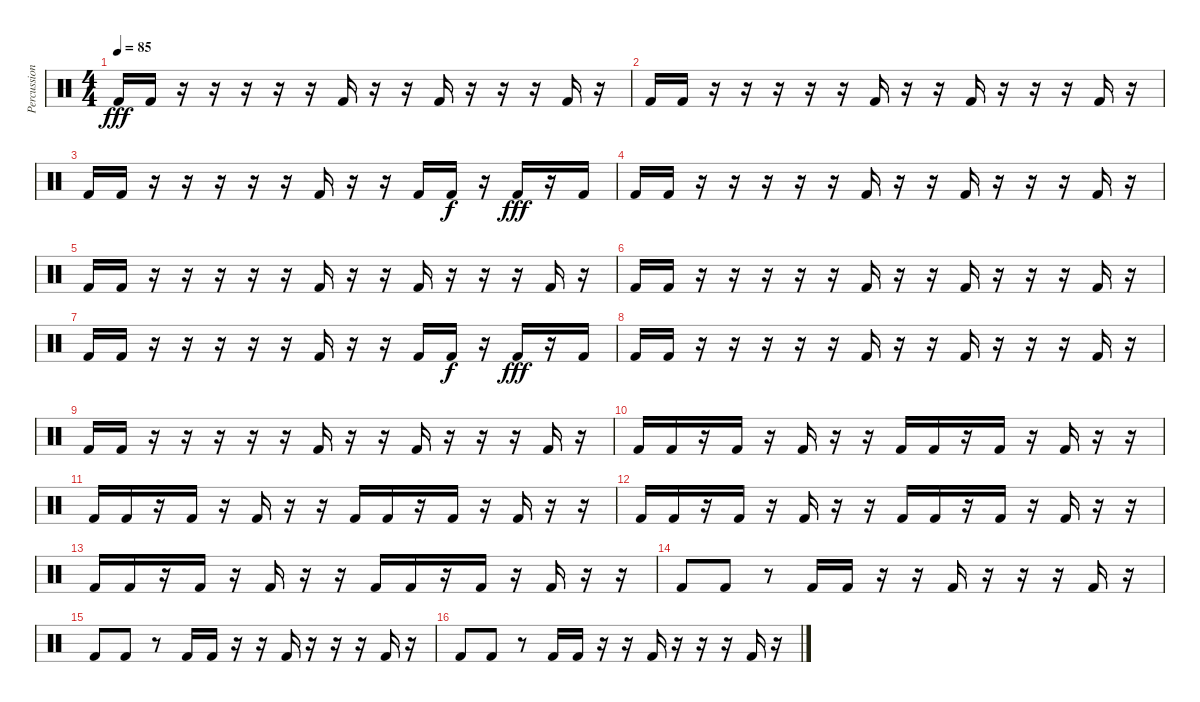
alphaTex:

\track ("Percussion" "Percussion") {instrument percussion}
\staff {score}
\articulation defaults
\ts (4 4)
\tempo 85
\clef neutral
\ks c "Kick (hit) 2".16{dy fff} "Kick (hit) 2".16
r.16 r.16 r.16 r.16 r.16 "Kick (hit) 2".16 r.16 r.16 "Kick (hit) 2".16 r.16 r.16 r.16 "Kick (hit) 2".16 r.16 |
"Kick (hit) 2".16 "Kick (hit) 2".16 r.16 r.16 r.16 r.16 r.16 "Kick (hit) 2".16 r.16 r.16 "Kick (hit) 2".16 r.16 r.16 r.16 "Kick (hit) 2".16 r.16 |
"Kick (hit) 2".16 "Kick (hit) 2".16 r.16 r.16 r.16 r.16 r.16 "Kick (hit) 2".16 r.16 r.16 "Kick (hit) 2".16 "Kick (hit) 2".16{dy f} r.16 "Kick (hit) 2".16{dy fff} r.16 "Kick (hit) 2".16 |
"Kick (hit) 2".16 "Kick (hit) 2".16 r.16 r.16 r.16 r.16 r.16 "Kick (hit) 2".16 r.16 r.16 "Kick (hit) 2".16 r.16 r.16 r.16 "Kick (hit) 2".16 r.16 |
"Kick (hit) 2".16 "Kick (hit) 2".16 r.16 r.16 r.16 r.16 r.16 "Kick (hit) 2".16 r.16 r.16 "Kick (hit) 2".16 r.16 r.16 r.16 "Kick (hit) 2".16 r.16 |
"Kick (hit) 2".16 "Kick (hit) 2".16 r.16 r.16 r.16 r.16 r.16 "Kick (hit) 2".16 r.16 r.16 "Kick (hit) 2".16 r.16 r.16 r.16 "Kick (hit) 2".16 r.16 |
"Kick (hit) 2".16 "Kick (hit) 2".16 r.16 r.16 r.16 r.16 r.16 "Kick (hit) 2".16 r.16 r.16 "Kick (hit) 2".16 "Kick (hit) 2".16{dy f} r.16 "Kick (hit) 2".16{dy fff} r.16 "Kick (hit) 2".16 |
"Kick (hit) 2".16 "Kick (hit) 2".16 r.16 r.16 r.16 r.16 r.16 "Kick (hit) 2".16 r.16 r.16 "Kick (hit) 2".16 r.16 r.16 r.16 "Kick (hit) 2".16 r.16 |
"Kick (hit) 2".16 "Kick (hit) 2".16 r.16 r.16 r.16 r.16 r.16 "Kick (hit) 2".16 r.16 r.16 "Kick (hit) 2".16 r.16 r.16 r.16 "Kick (hit) 2".16 r.16 |
"Kick (hit) 2".16 "Kick (hit) 2".16 r.16 "Kick (hit) 2".16 r.16 "Kick (hit) 2".16 r.16 r.16 "Kick (hit) 2".16 "Kick (hit) 2".16 r.16 "Kick (hit) 2".16 r.16 "Kick (hit) 2".16 r.16 r.16 |
"Kick (hit) 2".16 "Kick (hit) 2".16 r.16 "Kick (hit) 2".16 r.16 "Kick (hit) 2".16 r.16 r.16 "Kick (hit) 2".16 "Kick (hit) 2".16 r.16 "Kick (hit) 2".16 r.16 "Kick (hit) 2".16 r.16 r.16 |
"Kick (hit) 2".16 "Kick (hit) 2".16 r.16 "Kick (hit) 2".16 r.16 "Kick (hit) 2".16 r.16 r.16 "Kick (hit) 2".16 "Kick (hit) 2".16 r.16 "Kick (hit) 2".16 r.16 "Kick (hit) 2".16 r.16 r.16 |
"Kick (hit) 2".16 "Kick (hit) 2".16 r.16 "Kick (hit) 2".16 r.16 "Kick (hit) 2".16 r.16 r.16 "Kick (hit) 2".16 "Kick (hit) 2".16 r.16 "Kick (hit) 2".16 r.16 "Kick (hit) 2".16 r.16 r.16 |
"Kick (hit) 2".8 "Kick (hit) 2".8 r.8 "Kick (hit) 2".16 "Kick (hit) 2".16 r.16 r.16 "Kick (hit) 2".16 r.16 r.16 r.16 "Kick (hit) 2".16 r.16 |
"Kick (hit) 2".8 "Kick (hit) 2".8 r.8 "Kick (hit) 2".16 "Kick (hit) 2".16 r.16 r.16 "Kick (hit) 2".16 r.16 r.16 r.16 "Kick (hit) 2".16 r.16 |
"Kick (hit) 2".8 "Kick (hit) 2".8 r.8 "Kick (hit) 2".16 "Kick (hit) 2".16 r.16 r.16 "Kick (hit) 2".16 r.16 r.16 r.16 "Kick (hit) 2".16 r.16
